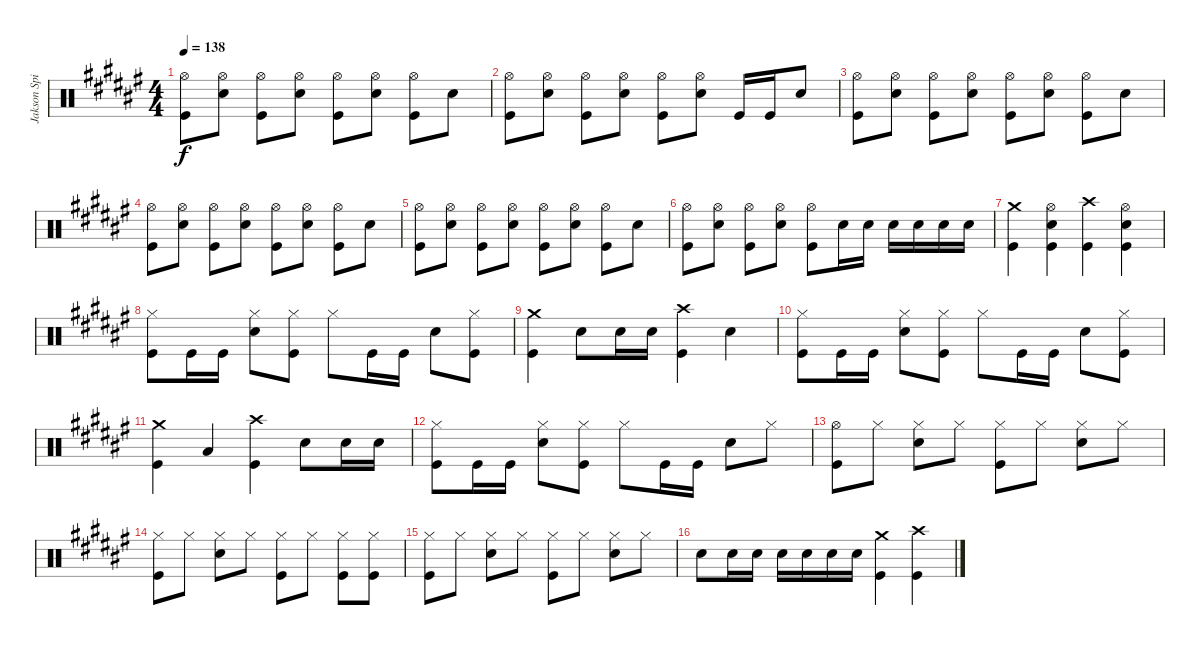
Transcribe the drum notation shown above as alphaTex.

\track ("Jakson Spires" "Jakson Spi") {instrument percussion}
\staff {score}
\articulation defaults
\ts (4 4)
\tempo 138
\clef neutral
\ks f#
("Hi-Hat (open)" "Kick (hit)").8{dy f} ("Hi-Hat (open)" "Snare (hit) 2").8 ("Hi-Hat (open)" "Kick (hit)").8 ("Hi-Hat (open)" "Snare (hit) 2").8 ("Hi-Hat (open)" "Kick (hit)").8 ("Hi-Hat (open)" "Snare (hit) 2").8 ("Hi-Hat (open)" "Kick (hit)").8 "Snare (hit) 2".8 |
("Hi-Hat (open)" "Kick (hit)").8 ("Hi-Hat (open)" "Snare (hit) 2").8 ("Hi-Hat (open)" "Kick (hit)").8 ("Hi-Hat (open)" "Snare (hit) 2").8 ("Hi-Hat (open)" "Kick (hit)").8 ("Hi-Hat (open)" "Snare (hit) 2").8 "Kick (hit)".16 "Kick (hit)".16 "Snare (hit) 2".8 |
("Hi-Hat (open)" "Kick (hit)").8 ("Hi-Hat (open)" "Snare (hit) 2").8 ("Hi-Hat (open)" "Kick (hit)").8 ("Hi-Hat (open)" "Snare (hit) 2").8 ("Hi-Hat (open)" "Kick (hit)").8 ("Hi-Hat (open)" "Snare (hit) 2").8 ("Hi-Hat (open)" "Kick (hit)").8 "Snare (hit) 2".8 |
("Hi-Hat (open)" "Kick (hit)").8 ("Hi-Hat (open)" "Snare (hit) 2").8 ("Hi-Hat (open)" "Kick (hit)").8 ("Hi-Hat (open)" "Snare (hit) 2").8 ("Hi-Hat (open)" "Kick (hit)").8 ("Hi-Hat (open)" "Snare (hit) 2").8 ("Hi-Hat (open)" "Kick (hit)").8 "Snare (hit) 2".8 |
("Hi-Hat (open)" "Kick (hit)").8 ("Hi-Hat (open)" "Snare (hit) 2").8 ("Hi-Hat (open)" "Kick (hit)").8 ("Hi-Hat (open)" "Snare (hit) 2").8 ("Hi-Hat (open)" "Kick (hit)").8 ("Hi-Hat (open)" "Snare (hit) 2").8 ("Hi-Hat (open)" "Kick (hit)").8 "Snare (hit) 2".8 |
("Hi-Hat (open)" "Kick (hit)").8 ("Hi-Hat (open)" "Snare (hit) 2").8 ("Hi-Hat (open)" "Kick (hit)").8 ("Hi-Hat (open)" "Snare (hit) 2").8 ("Hi-Hat (open)" "Kick (hit)").8 "Snare (hit) 2".16 "Snare (hit) 2".16 "Snare (hit) 2".16 "Snare (hit) 2".16 "Snare (hit) 2".16 "Snare (hit) 2".16 |
("Crash medium (hit)" "Kick (hit)").4 ("Hi-Hat (open)" "Snare (hit) 2" "Kick (hit)").4 ("Crash high (hit)" "Kick (hit)").4 ("Hi-Hat (open)" "Snare (hit) 2" "Kick (hit)").4 |
("Hi-Hat (closed)" "Kick (hit)").8 "Kick (hit)".16 "Kick (hit)".16 ("Hi-Hat (closed)" "Snare (hit) 2").8 ("Hi-Hat (closed)" "Kick (hit)").8 "Hi-Hat (closed)".8 "Kick (hit)".16 "Kick (hit)".16 "Snare (hit) 2".8 ("Hi-Hat (closed)" "Kick (hit)").8 |
("Crash medium (hit)" "Kick (hit)").4 "Snare (hit) 2".8 "Snare (hit) 2".16 "Snare (hit) 2".16 ("Crash high (hit)" "Kick (hit)").4 "Snare (hit) 2".4 |
("Hi-Hat (closed)" "Kick (hit)").8 "Kick (hit)".16 "Kick (hit)".16 ("Hi-Hat (closed)" "Snare (hit) 2").8 ("Hi-Hat (closed)" "Kick (hit)").8 "Hi-Hat (closed)".8 "Kick (hit)".16 "Kick (hit)".16 "Snare (hit) 2".8 ("Hi-Hat (closed)" "Kick (hit)").8 |
("Crash medium (hit)" "Kick (hit)").4 "Low Tom (hit)".4 ("Crash high (hit)" "Kick (hit)").4 "Snare (hit) 2".8 "Snare (hit) 2".16 "Snare (hit) 2".16 |
("Hi-Hat (closed)" "Kick (hit)").8 "Kick (hit)".16 "Kick (hit)".16 ("Hi-Hat (closed)" "Snare (hit) 2").8 ("Hi-Hat (closed)" "Kick (hit)").8 "Hi-Hat (closed)".8 "Kick (hit)".16 "Kick (hit)".16 "Snare (hit) 2".8 "Hi-Hat (closed)".8 |
("Hi-Hat (open)" "Kick (hit)").8 "Hi-Hat (closed)".8 ("Hi-Hat (closed)" "Snare (hit) 2").8 "Hi-Hat (closed)".8 ("Hi-Hat (closed)" "Kick (hit)").8 "Hi-Hat (closed)".8 ("Hi-Hat (closed)" "Snare (hit) 2").8 "Hi-Hat (closed)".8 |
("Hi-Hat (closed)" "Kick (hit)").8 "Hi-Hat (closed)".8 ("Hi-Hat (closed)" "Snare (hit) 2").8 "Hi-Hat (closed)".8 ("Hi-Hat (closed)" "Kick (hit)").8 "Hi-Hat (closed)".8 ("Hi-Hat (closed)" "Kick (hit)").8 ("Hi-Hat (closed)" "Kick (hit)").8 |
("Hi-Hat (closed)" "Kick (hit)").8 "Hi-Hat (closed)".8 ("Hi-Hat (closed)" "Snare (hit) 2").8 "Hi-Hat (closed)".8 ("Hi-Hat (closed)" "Kick (hit)").8 "Hi-Hat (closed)".8 ("Hi-Hat (closed)" "Snare (hit) 2").8 "Hi-Hat (closed)".8 |
"Snare (hit) 2".8 "Snare (hit) 2".16 "Snare (hit) 2".16 "Snare (hit) 2".16 "Snare (hit) 2".16 "Snare (hit) 2".16 "Snare (hit) 2".16 ("Crash medium (hit)" "Kick (hit)").4 ("Crash high (hit)" "Kick (hit)").4
